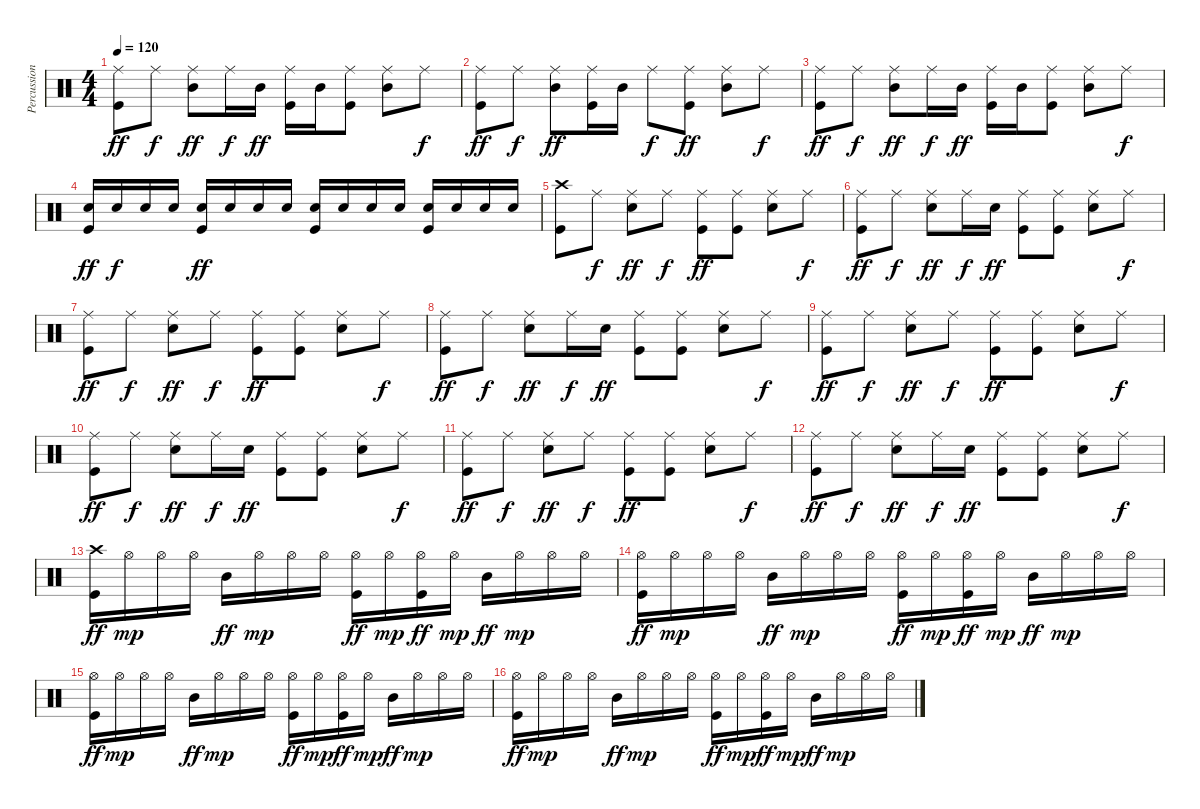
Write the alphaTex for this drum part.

\track ("Percussion" "Percussion") {instrument percussion}
\staff {score}
\articulation defaults
\ts (4 4)
\tempo 120
\clef neutral
\ks c
("Ride (middle)" "Kick (hit)").8{dy ff} "Ride (middle)".8{dy f} ("Ride (middle)" "Mid Tom (hit)").8{dy ff} "Ride (middle)".16{dy f} "Mid Tom (hit)".16{dy ff} ("Ride (middle)" "Kick (hit)").16 "Mid Tom (hit)".16 ("Ride (middle)" "Kick (hit)").8 ("Ride (middle)" "Mid Tom (hit)").8 "Ride (middle)".8{dy f} |
("Ride (middle)" "Kick (hit)").8{dy ff} "Ride (middle)".8{dy f} ("Ride (middle)" "Mid Tom (hit)").8{dy ff} ("Ride (middle)" "Kick (hit)").16 "Mid Tom (hit)".16 "Ride (middle)".8{dy f} ("Ride (middle)" "Kick (hit)").8{dy ff} ("Ride (middle)" "Mid Tom (hit)").8 "Ride (middle)".8{dy f} |
("Ride (middle)" "Kick (hit)").8{dy ff} "Ride (middle)".8{dy f} ("Ride (middle)" "Mid Tom (hit)").8{dy ff} "Ride (middle)".16{dy f} "Mid Tom (hit)".16{dy ff} ("Ride (middle)" "Kick (hit)").16 "Mid Tom (hit)".16 ("Ride (middle)" "Kick (hit)").8 ("Ride (middle)" "Mid Tom (hit)").8 "Ride (middle)".8{dy f} |
("Snare (hit) 2" "Kick (hit)").16{dy ff} "Snare (hit) 2".16{dy f} "Snare (hit) 2".16 "Snare (hit) 2".16 ("Snare (hit) 2" "Kick (hit)").16{dy ff} "Snare (hit) 2".16 "Snare (hit) 2".16 "Snare (hit) 2".16 ("Snare (hit) 2" "Kick (hit)").16 "Snare (hit) 2".16 "Snare (hit) 2".16 "Snare (hit) 2".16 ("Snare (hit) 2" "Kick (hit)").16 "Snare (hit) 2".16 "Snare (hit) 2".16 "Snare (hit) 2".16 |
("Crash high (hit)" "Kick (hit)").8 "Ride (middle)".8{dy f} ("Ride (middle)" "Snare (hit) 2").8{dy ff} "Ride (middle)".8{dy f} ("Ride (middle)" "Kick (hit)").8{dy ff} ("Ride (middle)" "Kick (hit)").8 ("Ride (middle)" "Snare (hit) 2").8 "Ride (middle)".8{dy f} |
("Ride (middle)" "Kick (hit)").8{dy ff} "Ride (middle)".8{dy f} ("Ride (middle)" "Snare (hit) 2").8{dy ff} "Ride (middle)".16{dy f} "Snare (hit) 2".16{dy ff} ("Ride (middle)" "Kick (hit)").8 ("Ride (middle)" "Kick (hit)").8 ("Ride (middle)" "Snare (hit) 2").8 "Ride (middle)".8{dy f} |
("Ride (middle)" "Kick (hit)").8{dy ff} "Ride (middle)".8{dy f} ("Ride (middle)" "Snare (hit) 2").8{dy ff} "Ride (middle)".8{dy f} ("Ride (middle)" "Kick (hit)").8{dy ff} ("Ride (middle)" "Kick (hit)").8 ("Ride (middle)" "Snare (hit) 2").8 "Ride (middle)".8{dy f} |
("Ride (middle)" "Kick (hit)").8{dy ff} "Ride (middle)".8{dy f} ("Ride (middle)" "Snare (hit) 2").8{dy ff} "Ride (middle)".16{dy f} "Snare (hit) 2".16{dy ff} ("Ride (middle)" "Kick (hit)").8 ("Ride (middle)" "Kick (hit)").8 ("Ride (middle)" "Snare (hit) 2").8 "Ride (middle)".8{dy f} |
("Ride (middle)" "Kick (hit)").8{dy ff} "Ride (middle)".8{dy f} ("Ride (middle)" "Snare (hit) 2").8{dy ff} "Ride (middle)".8{dy f} ("Ride (middle)" "Kick (hit)").8{dy ff} ("Ride (middle)" "Kick (hit)").8 ("Ride (middle)" "Snare (hit) 2").8 "Ride (middle)".8{dy f} |
("Ride (middle)" "Kick (hit)").8{dy ff} "Ride (middle)".8{dy f} ("Ride (middle)" "Snare (hit) 2").8{dy ff} "Ride (middle)".16{dy f} "Snare (hit) 2".16{dy ff} ("Ride (middle)" "Kick (hit)").8 ("Ride (middle)" "Kick (hit)").8 ("Ride (middle)" "Snare (hit) 2").8 "Ride (middle)".8{dy f} |
("Ride (middle)" "Kick (hit)").8{dy ff} "Ride (middle)".8{dy f} ("Ride (middle)" "Snare (hit) 2").8{dy ff} "Ride (middle)".8{dy f} ("Ride (middle)" "Kick (hit)").8{dy ff} ("Ride (middle)" "Kick (hit)").8 ("Ride (middle)" "Snare (hit) 2").8 "Ride (middle)".8{dy f} |
("Ride (middle)" "Kick (hit)").8{dy ff} "Ride (middle)".8{dy f} ("Ride (middle)" "Snare (hit) 2").8{dy ff} "Ride (middle)".16{dy f} "Snare (hit) 2".16{dy ff} ("Ride (middle)" "Kick (hit)").8 ("Ride (middle)" "Kick (hit)").8 ("Ride (middle)" "Snare (hit) 2").8 "Ride (middle)".8{dy f} |
("Crash high (hit)" "Kick (hit)").16{dy ff} "Hi-Hat (open)".16{dy mp} "Hi-Hat (open)".16 "Hi-Hat (open)".16 "Mid Tom (hit)".16{dy ff} "Hi-Hat (open)".16{dy mp} "Hi-Hat (open)".16 "Hi-Hat (open)".16 ("Hi-Hat (open)" "Kick (hit)").16{dy ff} "Hi-Hat (open)".16{dy mp} ("Hi-Hat (open)" "Kick (hit)").16{dy ff} "Hi-Hat (open)".16{dy mp} "Mid Tom (hit)".16{dy ff} "Hi-Hat (open)".16{dy mp} "Hi-Hat (open)".16 "Hi-Hat (open)".16 |
("Hi-Hat (open)" "Kick (hit)").16{dy ff} "Hi-Hat (open)".16{dy mp} "Hi-Hat (open)".16 "Hi-Hat (open)".16 "Mid Tom (hit)".16{dy ff} "Hi-Hat (open)".16{dy mp} "Hi-Hat (open)".16 "Hi-Hat (open)".16 ("Hi-Hat (open)" "Kick (hit)").16{dy ff} "Hi-Hat (open)".16{dy mp} ("Hi-Hat (open)" "Kick (hit)").16{dy ff} "Hi-Hat (open)".16{dy mp} "Mid Tom (hit)".16{dy ff} "Hi-Hat (open)".16{dy mp} "Hi-Hat (open)".16 "Hi-Hat (open)".16 |
("Hi-Hat (open)" "Kick (hit)").16{dy ff} "Hi-Hat (open)".16{dy mp} "Hi-Hat (open)".16 "Hi-Hat (open)".16 "Mid Tom (hit)".16{dy ff} "Hi-Hat (open)".16{dy mp} "Hi-Hat (open)".16 "Hi-Hat (open)".16 ("Hi-Hat (open)" "Kick (hit)").16{dy ff} "Hi-Hat (open)".16{dy mp} ("Hi-Hat (open)" "Kick (hit)").16{dy ff} "Hi-Hat (open)".16{dy mp} "Mid Tom (hit)".16{dy ff} "Hi-Hat (open)".16{dy mp} "Hi-Hat (open)".16 "Hi-Hat (open)".16 |
("Hi-Hat (open)" "Kick (hit)").16{dy ff} "Hi-Hat (open)".16{dy mp} "Hi-Hat (open)".16 "Hi-Hat (open)".16 "Mid Tom (hit)".16{dy ff} "Hi-Hat (open)".16{dy mp} "Hi-Hat (open)".16 "Hi-Hat (open)".16 ("Hi-Hat (open)" "Kick (hit)").16{dy ff} "Hi-Hat (open)".16{dy mp} ("Hi-Hat (open)" "Kick (hit)").16{dy ff} "Hi-Hat (open)".16{dy mp} "Mid Tom (hit)".16{dy ff} "Hi-Hat (open)".16{dy mp} "Hi-Hat (open)".16 "Hi-Hat (open)".16
